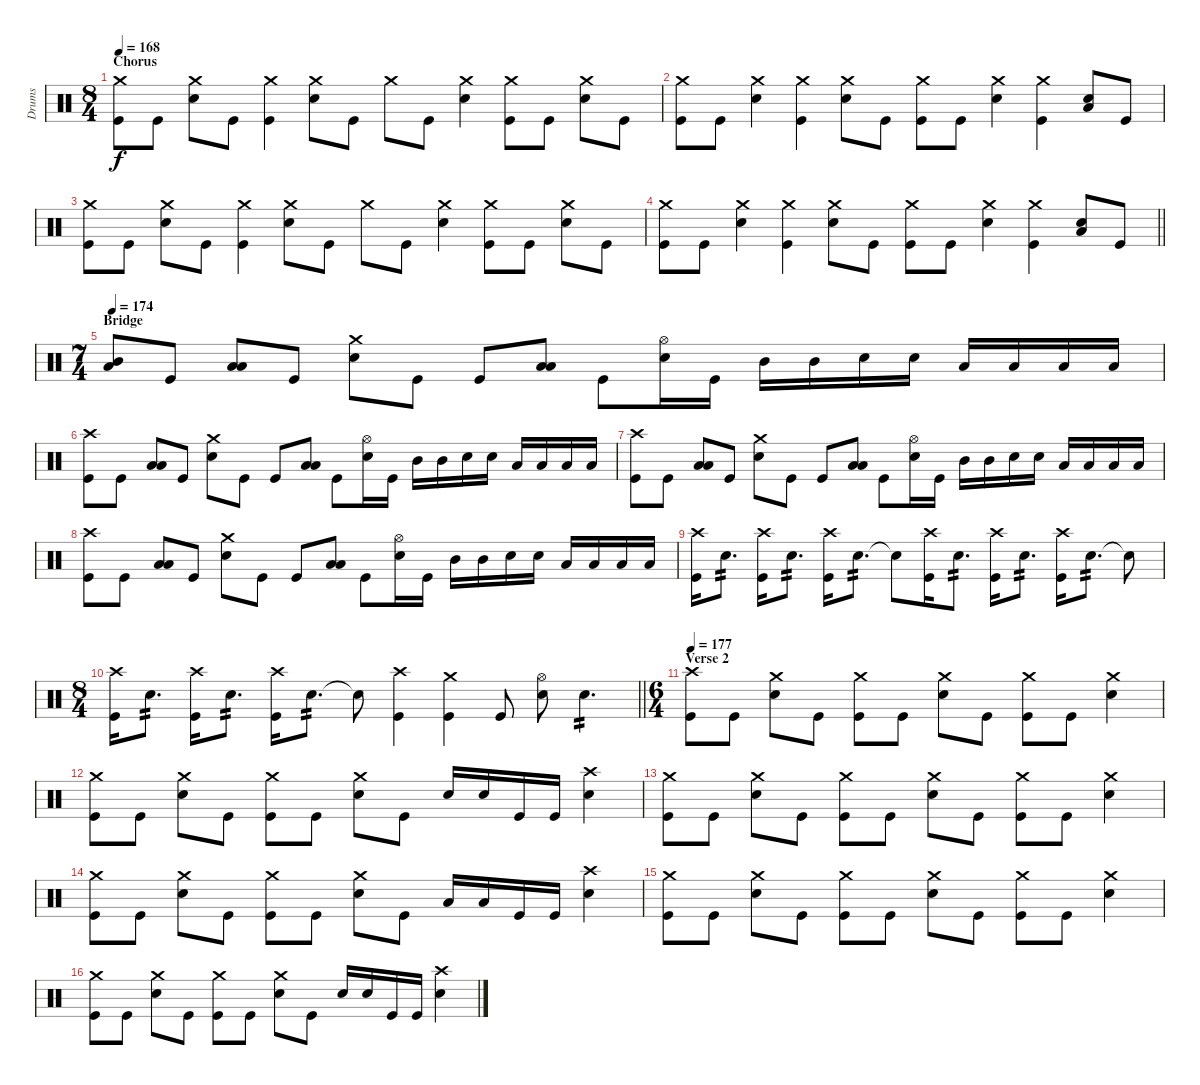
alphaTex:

\track ("Drums" "Drums") {instrument percussion}
\staff {score}
\articulation defaults
\ts (8 4)
\section ("" "Chorus")
\tempo 168
\clef neutral
\ks c
("Crash medium (hit)" "Kick (hit)").8{dy f} "Kick (hit)".8 ("Crash medium (hit)" "Electric Snare (hit)").8 "Kick (hit)".8 ("Crash medium (hit)" "Kick (hit)").4 ("Crash medium (hit)" "Electric Snare (hit)").8 "Kick (hit)".8 "Crash medium (hit)".8 "Kick (hit)".8 ("Crash medium (hit)" "Electric Snare (hit)").4 ("Crash medium (hit)" "Kick (hit)").8 "Kick (hit)".8 ("Crash medium (hit)" "Electric Snare (hit)").8 "Kick (hit)".8 |
("Crash medium (hit)" "Kick (hit)").8 "Kick (hit)".8 ("Crash medium (hit)" "Electric Snare (hit)").4 ("Crash medium (hit)" "Kick (hit)").4 ("Crash medium (hit)" "Electric Snare (hit)").8 "Kick (hit)".8 ("Crash medium (hit)" "Kick (hit)").8 "Kick (hit)".8 ("Crash medium (hit)" "Electric Snare (hit)").4 ("Crash medium (hit)" "Kick (hit)").4 ("Electric Snare (hit)" "Low Floor Tom (hit)").8 "Kick (hit)".8 |
("Crash medium (hit)" "Kick (hit)").8 "Kick (hit)".8 ("Crash medium (hit)" "Electric Snare (hit)").8 "Kick (hit)".8 ("Crash medium (hit)" "Kick (hit)").4 ("Crash medium (hit)" "Electric Snare (hit)").8 "Kick (hit)".8 "Crash medium (hit)".8 "Kick (hit)".8 ("Crash medium (hit)" "Electric Snare (hit)").4 ("Crash medium (hit)" "Kick (hit)").8 "Kick (hit)".8 ("Crash medium (hit)" "Electric Snare (hit)").8 "Kick (hit)".8 |
\barLineRight lightlight
("Crash medium (hit)" "Kick (hit)").8 "Kick (hit)".8 ("Crash medium (hit)" "Electric Snare (hit)").4 ("Crash medium (hit)" "Kick (hit)").4 ("Crash medium (hit)" "Electric Snare (hit)").8 "Kick (hit)".8 ("Crash medium (hit)" "Kick (hit)").8 "Kick (hit)".8 ("Crash medium (hit)" "Electric Snare (hit)").4 ("Crash medium (hit)" "Kick (hit)").4 ("Electric Snare (hit)" "Low Floor Tom (hit)").8 "Kick (hit)".8 |
\ts (7 4)
\section ("" "Bridge")
\tempo 174
("Mid Tom (hit)" "Low Floor Tom (hit)").8 "Kick (hit)".8 ("Low Tom (hit)" "Low Floor Tom (hit)").8 "Kick (hit)".8 ("Crash medium (hit)" "Electric Snare (hit)").8 "Kick (hit)".8 "Kick (hit)".8 ("Low Tom (hit)" "Low Floor Tom (hit)").8 "Kick (hit)".8 ("Hi-Hat (open)" "Electric Snare (hit)").16 "Kick (hit)".16 "Mid Tom (hit)".16 "Mid Tom (hit)".16 "Electric Snare (hit)".16 "Electric Snare (hit)".16 "Low Tom (hit)".16 "Low Tom (hit)".16 "Low Floor Tom (hit)".16 "Low Floor Tom (hit)".16 |
("Crash high (hit)" "Kick (hit)").8 "Kick (hit)".8 ("Low Tom (hit)" "Low Floor Tom (hit)").8 "Kick (hit)".8 ("Crash medium (hit)" "Electric Snare (hit)").8 "Kick (hit)".8 "Kick (hit)".8 ("Low Tom (hit)" "Low Floor Tom (hit)").8 "Kick (hit)".8 ("Hi-Hat (open)" "Electric Snare (hit)").16 "Kick (hit)".16 "Mid Tom (hit)".16 "Mid Tom (hit)".16 "Electric Snare (hit)".16 "Electric Snare (hit)".16 "Low Tom (hit)".16 "Low Tom (hit)".16 "Low Floor Tom (hit)".16 "Low Floor Tom (hit)".16 |
("Crash high (hit)" "Kick (hit)").8 "Kick (hit)".8 ("Low Tom (hit)" "Low Floor Tom (hit)").8 "Kick (hit)".8 ("Crash medium (hit)" "Electric Snare (hit)").8 "Kick (hit)".8 "Kick (hit)".8 ("Low Tom (hit)" "Low Floor Tom (hit)").8 "Kick (hit)".8 ("Hi-Hat (open)" "Electric Snare (hit)").16 "Kick (hit)".16 "Mid Tom (hit)".16 "Mid Tom (hit)".16 "Electric Snare (hit)".16 "Electric Snare (hit)".16 "Low Tom (hit)".16 "Low Tom (hit)".16 "Low Floor Tom (hit)".16 "Low Floor Tom (hit)".16 |
("Crash high (hit)" "Kick (hit)").8 "Kick (hit)".8 ("Low Tom (hit)" "Low Floor Tom (hit)").8 "Kick (hit)".8 ("Crash medium (hit)" "Electric Snare (hit)").8 "Kick (hit)".8 "Kick (hit)".8 ("Low Tom (hit)" "Low Floor Tom (hit)").8 "Kick (hit)".8 ("Hi-Hat (open)" "Electric Snare (hit)").16 "Kick (hit)".16 "Mid Tom (hit)".16 "Mid Tom (hit)".16 "Electric Snare (hit)".16 "Electric Snare (hit)".16 "Low Tom (hit)".16 "Low Tom (hit)".16 "Low Floor Tom (hit)".16 "Low Floor Tom (hit)".16 |
("Crash high (hit)" "Kick (hit)").16 "Electric Snare (hit)".8{d tp 2} ("Crash high (hit)" "Kick (hit)").16 "Electric Snare (hit)".8{d tp 2} ("Crash high (hit)" "Kick (hit)").16 "Electric Snare (hit)".8{d tp 2} "Electric Snare (hit)"{t}.8 ("Crash high (hit)" "Kick (hit)").16 "Electric Snare (hit)".8{d tp 2} ("Crash high (hit)" "Kick (hit)").16 "Electric Snare (hit)".8{d tp 2} ("Crash high (hit)" "Kick (hit)").16 "Electric Snare (hit)".8{d tp 2} "Electric Snare (hit)"{t}.8 |
\ts (8 4)
\barLineRight lightlight
("Crash high (hit)" "Kick (hit)").16 "Electric Snare (hit)".8{d tp 2} ("Crash high (hit)" "Kick (hit)").16 "Electric Snare (hit)".8{d tp 2} ("Crash high (hit)" "Kick (hit)").16 "Electric Snare (hit)".8{d tp 2} "Electric Snare (hit)"{t}.8 ("Crash high (hit)" "Kick (hit)").4 ("Crash medium (hit)" "Kick (hit)").4 "Kick (hit)".8 ("Hi-Hat (open)" "Electric Snare (hit)").8 "Electric Snare (hit)".4{d tp 2} |
\ts (6 4)
\section ("" "Verse 2")
\tempo 177
("Crash high (hit)" "Kick (hit)").8 "Kick (hit)".8 ("Crash medium (hit)" "Electric Snare (hit)").8 "Kick (hit)".8 ("Crash medium (hit)" "Kick (hit)").8 "Kick (hit)".8 ("Crash medium (hit)" "Electric Snare (hit)").8 "Kick (hit)".8 ("Crash medium (hit)" "Kick (hit)").8 "Kick (hit)".8 ("Crash medium (hit)" "Electric Snare (hit)").4 |
("Crash medium (hit)" "Kick (hit)").8 "Kick (hit)".8 ("Crash medium (hit)" "Electric Snare (hit)").8 "Kick (hit)".8 ("Crash medium (hit)" "Kick (hit)").8 "Kick (hit)".8 ("Crash medium (hit)" "Electric Snare (hit)").8 "Kick (hit)".8 "Electric Snare (hit)".16 "Electric Snare (hit)".16 "Kick (hit)".16 "Kick (hit)".16 ("Crash high (hit)" "Electric Snare (hit)").4 |
("Crash medium (hit)" "Kick (hit)").8 "Kick (hit)".8 ("Crash medium (hit)" "Electric Snare (hit)").8 "Kick (hit)".8 ("Crash medium (hit)" "Kick (hit)").8 "Kick (hit)".8 ("Crash medium (hit)" "Electric Snare (hit)").8 "Kick (hit)".8 ("Crash medium (hit)" "Kick (hit)").8 "Kick (hit)".8 ("Crash medium (hit)" "Electric Snare (hit)").4 |
("Crash medium (hit)" "Kick (hit)").8 "Kick (hit)".8 ("Crash medium (hit)" "Electric Snare (hit)").8 "Kick (hit)".8 ("Crash medium (hit)" "Kick (hit)").8 "Kick (hit)".8 ("Crash medium (hit)" "Electric Snare (hit)").8 "Kick (hit)".8 "Low Floor Tom (hit)".16 "Low Floor Tom (hit)".16 "Kick (hit)".16 "Kick (hit)".16 ("Crash high (hit)" "Electric Snare (hit)").4 |
("Crash medium (hit)" "Kick (hit)").8 "Kick (hit)".8 ("Crash medium (hit)" "Electric Snare (hit)").8 "Kick (hit)".8 ("Crash medium (hit)" "Kick (hit)").8 "Kick (hit)".8 ("Crash medium (hit)" "Electric Snare (hit)").8 "Kick (hit)".8 ("Crash medium (hit)" "Kick (hit)").8 "Kick (hit)".8 ("Crash medium (hit)" "Electric Snare (hit)").4 |
("Crash medium (hit)" "Kick (hit)").8 "Kick (hit)".8 ("Crash medium (hit)" "Electric Snare (hit)").8 "Kick (hit)".8 ("Crash medium (hit)" "Kick (hit)").8 "Kick (hit)".8 ("Crash medium (hit)" "Electric Snare (hit)").8 "Kick (hit)".8 "Electric Snare (hit)".16 "Electric Snare (hit)".16 "Kick (hit)".16 "Kick (hit)".16 ("Crash high (hit)" "Electric Snare (hit)").4
